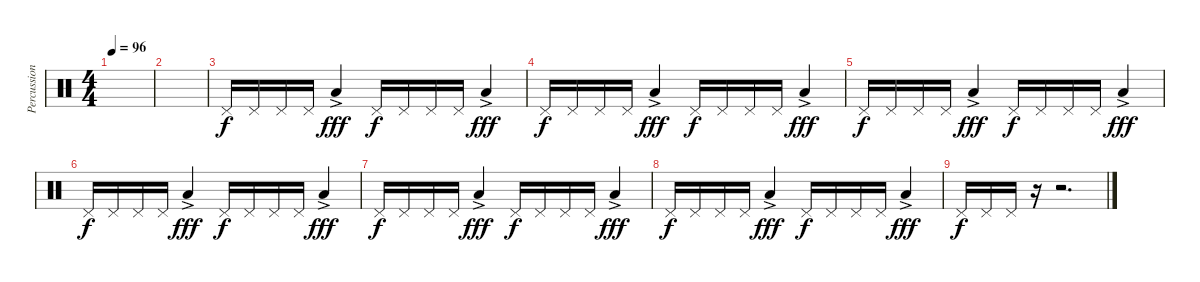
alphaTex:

\track ("Percussions ténor" "Percussion") {instrument percussion}
\staff {score}
\articulation defaults
\ts (4 4)
\tempo 96
\clef neutral
\ks c
|
|
"Pedal Hi-Hat (hit)".16 "Pedal Hi-Hat (hit)".16 "Pedal Hi-Hat (hit)".16 "Pedal Hi-Hat (hit)".16 "Low Tom (hit)"{ac}.4{dy fff} "Pedal Hi-Hat (hit)".16{dy f} "Pedal Hi-Hat (hit)".16 "Pedal Hi-Hat (hit)".16 "Pedal Hi-Hat (hit)".16 "Low Tom (hit)"{ac}.4{dy fff} |
"Pedal Hi-Hat (hit)".16{dy f} "Pedal Hi-Hat (hit)".16 "Pedal Hi-Hat (hit)".16 "Pedal Hi-Hat (hit)".16 "Low Tom (hit)"{ac}.4{dy fff} "Pedal Hi-Hat (hit)".16{dy f} "Pedal Hi-Hat (hit)".16 "Pedal Hi-Hat (hit)".16 "Pedal Hi-Hat (hit)".16 "Low Tom (hit)"{ac}.4{dy fff} |
"Pedal Hi-Hat (hit)".16{dy f} "Pedal Hi-Hat (hit)".16 "Pedal Hi-Hat (hit)".16 "Pedal Hi-Hat (hit)".16 "Low Tom (hit)"{ac}.4{dy fff} "Pedal Hi-Hat (hit)".16{dy f} "Pedal Hi-Hat (hit)".16 "Pedal Hi-Hat (hit)".16 "Pedal Hi-Hat (hit)".16 "Low Tom (hit)"{ac}.4{dy fff} |
"Pedal Hi-Hat (hit)".16{dy f} "Pedal Hi-Hat (hit)".16 "Pedal Hi-Hat (hit)".16 "Pedal Hi-Hat (hit)".16 "Low Tom (hit)"{ac}.4{dy fff} "Pedal Hi-Hat (hit)".16{dy f} "Pedal Hi-Hat (hit)".16 "Pedal Hi-Hat (hit)".16 "Pedal Hi-Hat (hit)".16 "Low Tom (hit)"{ac}.4{dy fff} |
"Pedal Hi-Hat (hit)".16{dy f} "Pedal Hi-Hat (hit)".16 "Pedal Hi-Hat (hit)".16 "Pedal Hi-Hat (hit)".16 "Low Tom (hit)"{ac}.4{dy fff} "Pedal Hi-Hat (hit)".16{dy f} "Pedal Hi-Hat (hit)".16 "Pedal Hi-Hat (hit)".16 "Pedal Hi-Hat (hit)".16 "Low Tom (hit)"{ac}.4{dy fff} |
"Pedal Hi-Hat (hit)".16{dy f} "Pedal Hi-Hat (hit)".16 "Pedal Hi-Hat (hit)".16 "Pedal Hi-Hat (hit)".16 "Low Tom (hit)"{ac}.4{dy fff} "Pedal Hi-Hat (hit)".16{dy f} "Pedal Hi-Hat (hit)".16 "Pedal Hi-Hat (hit)".16 "Pedal Hi-Hat (hit)".16 "Low Tom (hit)"{ac}.4{dy fff} |
"Pedal Hi-Hat (hit)".16{dy f} "Pedal Hi-Hat (hit)".16 "Pedal Hi-Hat (hit)".16 r.16 r.2{d}
